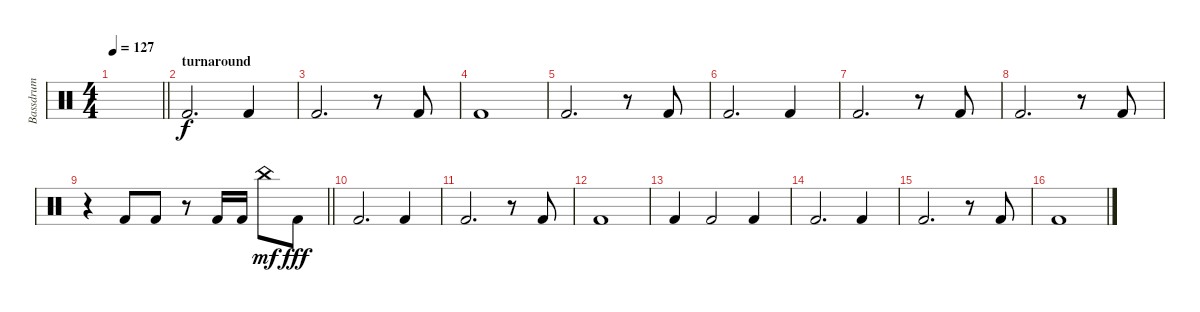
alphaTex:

\track ("Bassdrum" "Bassdrum") {instrument percussion}
\staff {score}
\articulation defaults
\ts (4 4)
\section ("" "")
\tempo 127
\clef neutral
\barLineRight lightlight
\ks c
|
\section ("" "turnaround")
"Kick (hit) 2".2{d} "Kick (hit) 2".4 |
"Kick (hit) 2".2{d} r.8 "Kick (hit) 2".8 |
"Kick (hit) 2".1 |
"Kick (hit) 2".2{d} r.8 "Kick (hit) 2".8 |
"Kick (hit) 2".2{d} "Kick (hit) 2".4 |
"Kick (hit) 2".2{d} r.8 "Kick (hit) 2".8 |
"Kick (hit) 2".2{d} r.8 "Kick (hit) 2".8 |
\barLineRight lightlight
r.4 "Kick (hit) 2".8 "Kick (hit) 2".8 r.8 "Kick (hit) 2".16 "Kick (hit) 2".16 "China (hit)".8{dy mf} "Kick (hit) 2".8{dy fff} |
\section ("" "")
"Kick (hit) 2".2{d} "Kick (hit) 2".4 |
"Kick (hit) 2".2{d} r.8 "Kick (hit) 2".8 |
"Kick (hit) 2".1 |
"Kick (hit) 2".4 "Kick (hit) 2".2 "Kick (hit) 2".4 |
"Kick (hit) 2".2{d} "Kick (hit) 2".4 |
"Kick (hit) 2".2{d} r.8 "Kick (hit) 2".8 |
"Kick (hit) 2".1
